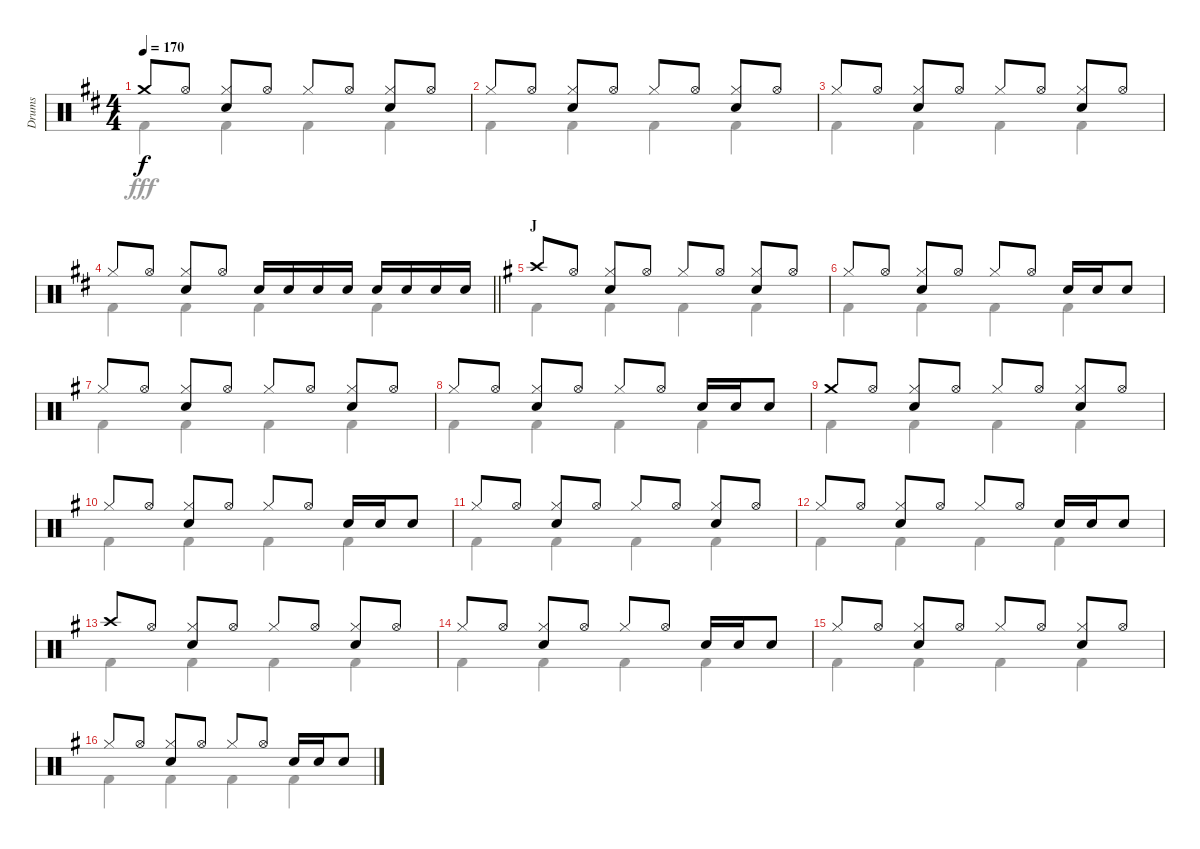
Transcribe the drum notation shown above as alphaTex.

\track ("Drums" "Drums") {instrument percussion}
\staff {score}
\articulation defaults
\voice
\ts (4 4)
\tempo 170
\clef neutral
\ks d "Crash medium (hit)".8{dy f} "Hi-Hat (open)".8
("Hi-Hat (closed)" "Snare (hit) 2").8 "Hi-Hat (open)".8 "Hi-Hat (closed)".8 "Hi-Hat (open)".8 ("Hi-Hat (closed)" "Snare (hit) 2").8 "Hi-Hat (open)".8 |
"Hi-Hat (closed)".8 "Hi-Hat (open)".8 ("Hi-Hat (closed)" "Snare (hit) 2").8 "Hi-Hat (open)".8 "Hi-Hat (closed)".8 "Hi-Hat (open)".8 ("Hi-Hat (closed)" "Snare (hit) 2").8 "Hi-Hat (open)".8 |
"Hi-Hat (closed)".8 "Hi-Hat (open)".8 ("Hi-Hat (closed)" "Snare (hit) 2").8 "Hi-Hat (open)".8 "Hi-Hat (closed)".8 "Hi-Hat (open)".8 ("Hi-Hat (closed)" "Snare (hit) 2").8 "Hi-Hat (open)".8 |
\barLineRight lightlight "Hi-Hat (closed)".8 "Hi-Hat (open)".8
("Hi-Hat (closed)" "Snare (hit) 2").8 "Hi-Hat (open)".8 "Snare (hit) 2".16 "Snare (hit) 2".16 "Snare (hit) 2".16 "Snare (hit) 2".16 "Snare (hit) 2".16 "Snare (hit) 2".16 "Snare (hit) 2".16 "Snare (hit) 2".16 |
\section ("" "J")
\ks g "Crash high (hit)".8 "Hi-Hat (open)".8
("Hi-Hat (closed)" "Snare (hit) 2").8 "Hi-Hat (open)".8 "Hi-Hat (closed)".8 "Hi-Hat (open)".8 ("Hi-Hat (closed)" "Snare (hit) 2").8 "Hi-Hat (open)".8 |
"Hi-Hat (closed)".8 "Hi-Hat (open)".8 ("Hi-Hat (closed)" "Snare (hit) 2").8 "Hi-Hat (open)".8 "Hi-Hat (closed)".8 "Hi-Hat (open)".8 "Snare (hit) 2".16 "Snare (hit) 2".16 "Snare (hit) 2".8 |
"Hi-Hat (closed)".8 "Hi-Hat (open)".8 ("Hi-Hat (closed)" "Snare (hit) 2").8 "Hi-Hat (open)".8 "Hi-Hat (closed)".8 "Hi-Hat (open)".8 ("Hi-Hat (closed)" "Snare (hit) 2").8 "Hi-Hat (open)".8 |
"Hi-Hat (closed)".8 "Hi-Hat (open)".8 ("Hi-Hat (closed)" "Snare (hit) 2").8 "Hi-Hat (open)".8 "Hi-Hat (closed)".8 "Hi-Hat (open)".8 "Snare (hit) 2".16 "Snare (hit) 2".16 "Snare (hit) 2".8 |
"Crash medium (hit)".8 "Hi-Hat (open)".8 ("Hi-Hat (closed)" "Snare (hit) 2").8 "Hi-Hat (open)".8 "Hi-Hat (closed)".8 "Hi-Hat (open)".8 ("Hi-Hat (closed)" "Snare (hit) 2").8 "Hi-Hat (open)".8 |
"Hi-Hat (closed)".8 "Hi-Hat (open)".8 ("Hi-Hat (closed)" "Snare (hit) 2").8 "Hi-Hat (open)".8 "Hi-Hat (closed)".8 "Hi-Hat (open)".8 "Snare (hit) 2".16 "Snare (hit) 2".16 "Snare (hit) 2".8 |
"Hi-Hat (closed)".8 "Hi-Hat (open)".8 ("Hi-Hat (closed)" "Snare (hit) 2").8 "Hi-Hat (open)".8 "Hi-Hat (closed)".8 "Hi-Hat (open)".8 ("Hi-Hat (closed)" "Snare (hit) 2").8 "Hi-Hat (open)".8 |
"Hi-Hat (closed)".8 "Hi-Hat (open)".8 ("Hi-Hat (closed)" "Snare (hit) 2").8 "Hi-Hat (open)".8 "Hi-Hat (closed)".8 "Hi-Hat (open)".8 "Snare (hit) 2".16 "Snare (hit) 2".16 "Snare (hit) 2".8 |
"Crash high (hit)".8 "Hi-Hat (open)".8 ("Hi-Hat (closed)" "Snare (hit) 2").8 "Hi-Hat (open)".8 "Hi-Hat (closed)".8 "Hi-Hat (open)".8 ("Hi-Hat (closed)" "Snare (hit) 2").8 "Hi-Hat (open)".8 |
"Hi-Hat (closed)".8 "Hi-Hat (open)".8 ("Hi-Hat (closed)" "Snare (hit) 2").8 "Hi-Hat (open)".8 "Hi-Hat (closed)".8 "Hi-Hat (open)".8 "Snare (hit) 2".16 "Snare (hit) 2".16 "Snare (hit) 2".8 |
"Hi-Hat (closed)".8 "Hi-Hat (open)".8 ("Hi-Hat (closed)" "Snare (hit) 2").8 "Hi-Hat (open)".8 "Hi-Hat (closed)".8 "Hi-Hat (open)".8 ("Hi-Hat (closed)" "Snare (hit) 2").8 "Hi-Hat (open)".8 |
"Hi-Hat (closed)".8 "Hi-Hat (open)".8 ("Hi-Hat (closed)" "Snare (hit) 2").8 "Hi-Hat (open)".8 "Hi-Hat (closed)".8 "Hi-Hat (open)".8 "Snare (hit) 2".16 "Snare (hit) 2".16 "Snare (hit) 2".8
\voice
\clef neutral
\ottava regular
\simile none
\ks d "Kick (hit) 2".4{dy fff} "Kick (hit) 2".4 "Kick (hit) 2".4 "Kick (hit) 2".4
|
"Kick (hit) 2".4 "Kick (hit) 2".4 "Kick (hit) 2".4 "Kick (hit) 2".4 |
"Kick (hit) 2".4 "Kick (hit) 2".4 "Kick (hit) 2".4 "Kick (hit) 2".4 |
\barLineRight lightlight "Kick (hit) 2".4 "Kick (hit) 2".4 "Kick (hit) 2".4 "Kick (hit) 2".4
|
\ks g "Kick (hit) 2".4 "Kick (hit) 2".4 "Kick (hit) 2".4 "Kick (hit) 2".4
|
"Kick (hit) 2".4 "Kick (hit) 2".4 "Kick (hit) 2".4 "Kick (hit) 2".4 |
"Kick (hit) 2".4 "Kick (hit) 2".4 "Kick (hit) 2".4 "Kick (hit) 2".4 |
"Kick (hit) 2".4 "Kick (hit) 2".4 "Kick (hit) 2".4 "Kick (hit) 2".4 |
"Kick (hit) 2".4 "Kick (hit) 2".4 "Kick (hit) 2".4 "Kick (hit) 2".4 |
"Kick (hit) 2".4 "Kick (hit) 2".4 "Kick (hit) 2".4 "Kick (hit) 2".4 |
"Kick (hit) 2".4 "Kick (hit) 2".4 "Kick (hit) 2".4 "Kick (hit) 2".4 |
"Kick (hit) 2".4 "Kick (hit) 2".4 "Kick (hit) 2".4 "Kick (hit) 2".4 |
"Kick (hit) 2".4 "Kick (hit) 2".4 "Kick (hit) 2".4 "Kick (hit) 2".4 |
"Kick (hit) 2".4 "Kick (hit) 2".4 "Kick (hit) 2".4 "Kick (hit) 2".4 |
"Kick (hit) 2".4 "Kick (hit) 2".4 "Kick (hit) 2".4 "Kick (hit) 2".4 |
"Kick (hit) 2".4 "Kick (hit) 2".4 "Kick (hit) 2".4 "Kick (hit) 2".4
